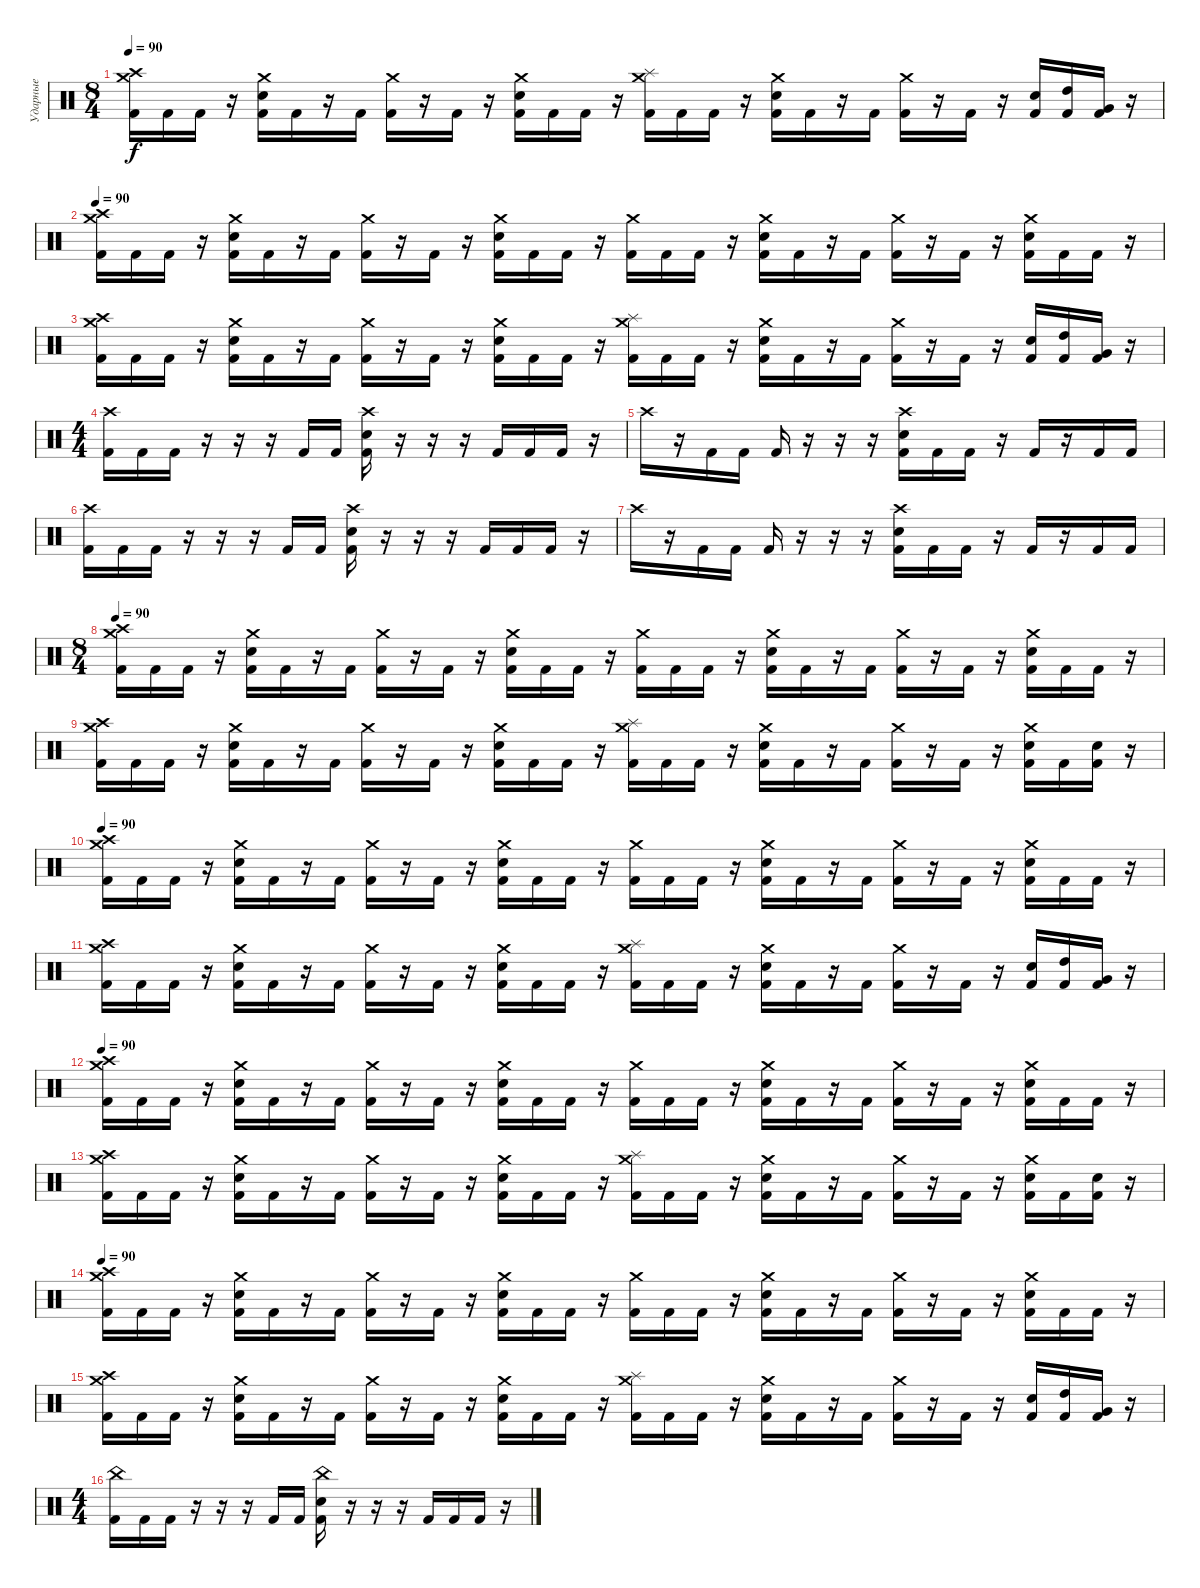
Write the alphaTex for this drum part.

\track ("Ударные" "Ударные") {instrument percussion}
\staff {score}
\articulation defaults
\ts (8 4)
\tempo 90
\clef neutral
\ks c
("Crash medium (hit)" "Crash high (hit)" "Kick (hit) 2").16{dy f} "Kick (hit) 2".16 "Kick (hit) 2".16 r.16 ("Crash medium (hit)" "Electric Snare (hit)" "Kick (hit) 2").16 "Kick (hit) 2".16 r.16 "Kick (hit) 2".16 ("Crash medium (hit)" "Kick (hit) 2").16 r.16 "Kick (hit) 2".16 r.16 ("Crash medium (hit)" "Electric Snare (hit)" "Kick (hit) 2").16 "Kick (hit) 2".16 "Kick (hit) 2".16 r.16 ("Crash medium (hit)" "Splash (hit)" "Kick (hit) 2").16 "Kick (hit) 2".16 "Kick (hit) 2".16 r.16 ("Crash medium (hit)" "Electric Snare (hit)" "Kick (hit) 2").16 "Kick (hit) 2".16 r.16 "Kick (hit) 2".16 ("Crash medium (hit)" "Kick (hit) 2").16 r.16 "Kick (hit) 2".16 r.16 ("Electric Snare (hit)" "Kick (hit) 2").16 ("High Tom (hit)" "Kick (hit) 2").16 ("Very Low Tom (hit)" "Kick (hit) 2").16 r.16 |
\tempo 90
("Crash medium (hit)" "Crash high (hit)" "Kick (hit) 2").16 "Kick (hit) 2".16 "Kick (hit) 2".16 r.16 ("Crash medium (hit)" "Electric Snare (hit)" "Kick (hit) 2").16 "Kick (hit) 2".16 r.16 "Kick (hit) 2".16 ("Crash medium (hit)" "Kick (hit) 2").16 r.16 "Kick (hit) 2".16 r.16 ("Crash medium (hit)" "Electric Snare (hit)" "Kick (hit) 2").16 "Kick (hit) 2".16 "Kick (hit) 2".16 r.16 ("Crash medium (hit)" "Kick (hit) 2").16 "Kick (hit) 2".16 "Kick (hit) 2".16 r.16 ("Crash medium (hit)" "Electric Snare (hit)" "Kick (hit) 2").16 "Kick (hit) 2".16 r.16 "Kick (hit) 2".16 ("Crash medium (hit)" "Kick (hit) 2").16 r.16 "Kick (hit) 2".16 r.16 ("Crash medium (hit)" "Electric Snare (hit)" "Kick (hit) 2").16 "Kick (hit) 2".16 "Kick (hit) 2".16 r.16 |
("Crash medium (hit)" "Crash high (hit)" "Kick (hit) 2").16 "Kick (hit) 2".16 "Kick (hit) 2".16 r.16 ("Crash medium (hit)" "Electric Snare (hit)" "Kick (hit) 2").16 "Kick (hit) 2".16 r.16 "Kick (hit) 2".16 ("Crash medium (hit)" "Kick (hit) 2").16 r.16 "Kick (hit) 2".16 r.16 ("Crash medium (hit)" "Electric Snare (hit)" "Kick (hit) 2").16 "Kick (hit) 2".16 "Kick (hit) 2".16 r.16 ("Crash medium (hit)" "Splash (hit)" "Kick (hit) 2").16 "Kick (hit) 2".16 "Kick (hit) 2".16 r.16 ("Crash medium (hit)" "Electric Snare (hit)" "Kick (hit) 2").16 "Kick (hit) 2".16 r.16 "Kick (hit) 2".16 ("Crash medium (hit)" "Kick (hit) 2").16 r.16 "Kick (hit) 2".16 r.16 ("Electric Snare (hit)" "Kick (hit) 2").16 ("High Tom (hit)" "Kick (hit) 2").16 ("Very Low Tom (hit)" "Kick (hit) 2").16 r.16 |
\ts (4 4)
("Crash high (hit)" "Kick (hit) 2").16 "Kick (hit) 2".16 "Kick (hit) 2".16 r.16 r.16 r.16 "Kick (hit) 2".16 "Kick (hit) 2".16 ("Crash high (hit)" "Electric Snare (hit)" "Kick (hit) 2").16 r.16 r.16 r.16 "Kick (hit) 2".16 "Kick (hit) 2".16 "Kick (hit) 2".16 r.16 |
"Crash high (hit)".16 r.16 "Kick (hit) 2".16 "Kick (hit) 2".16 "Kick (hit) 2".16 r.16 r.16 r.16 ("Crash high (hit)" "Electric Snare (hit)" "Kick (hit) 2").16 "Kick (hit) 2".16 "Kick (hit) 2".16 r.16 "Kick (hit) 2".16 r.16 "Kick (hit) 2".16 "Kick (hit) 2".16 |
("Crash high (hit)" "Kick (hit) 2").16 "Kick (hit) 2".16 "Kick (hit) 2".16 r.16 r.16 r.16 "Kick (hit) 2".16 "Kick (hit) 2".16 ("Crash high (hit)" "Electric Snare (hit)" "Kick (hit) 2").16 r.16 r.16 r.16 "Kick (hit) 2".16 "Kick (hit) 2".16 "Kick (hit) 2".16 r.16 |
"Crash high (hit)".16 r.16 "Kick (hit) 2".16 "Kick (hit) 2".16 "Kick (hit) 2".16 r.16 r.16 r.16 ("Crash high (hit)" "Electric Snare (hit)" "Kick (hit) 2").16 "Kick (hit) 2".16 "Kick (hit) 2".16 r.16 "Kick (hit) 2".16 r.16 "Kick (hit) 2".16 "Kick (hit) 2".16 |
\ts (8 4)
\tempo 90
("Crash medium (hit)" "Crash high (hit)" "Kick (hit) 2").16 "Kick (hit) 2".16 "Kick (hit) 2".16 r.16 ("Crash medium (hit)" "Electric Snare (hit)" "Kick (hit) 2").16 "Kick (hit) 2".16 r.16 "Kick (hit) 2".16 ("Crash medium (hit)" "Kick (hit) 2").16 r.16 "Kick (hit) 2".16 r.16 ("Crash medium (hit)" "Electric Snare (hit)" "Kick (hit) 2").16 "Kick (hit) 2".16 "Kick (hit) 2".16 r.16 ("Crash medium (hit)" "Kick (hit) 2").16 "Kick (hit) 2".16 "Kick (hit) 2".16 r.16 ("Crash medium (hit)" "Electric Snare (hit)" "Kick (hit) 2").16 "Kick (hit) 2".16 r.16 "Kick (hit) 2".16 ("Crash medium (hit)" "Kick (hit) 2").16 r.16 "Kick (hit) 2".16 r.16 ("Crash medium (hit)" "Electric Snare (hit)" "Kick (hit) 2").16 "Kick (hit) 2".16 "Kick (hit) 2".16 r.16 |
("Crash medium (hit)" "Crash high (hit)" "Kick (hit) 2").16 "Kick (hit) 2".16 "Kick (hit) 2".16 r.16 ("Crash medium (hit)" "Electric Snare (hit)" "Kick (hit) 2").16 "Kick (hit) 2".16 r.16 "Kick (hit) 2".16 ("Crash medium (hit)" "Kick (hit) 2").16 r.16 "Kick (hit) 2".16 r.16 ("Crash medium (hit)" "Electric Snare (hit)" "Kick (hit) 2").16 "Kick (hit) 2".16 "Kick (hit) 2".16 r.16 ("Crash medium (hit)" "Splash (hit)" "Kick (hit) 2").16 "Kick (hit) 2".16 "Kick (hit) 2".16 r.16 ("Crash medium (hit)" "Electric Snare (hit)" "Kick (hit) 2").16 "Kick (hit) 2".16 r.16 "Kick (hit) 2".16 ("Crash medium (hit)" "Kick (hit) 2").16 r.16 "Kick (hit) 2".16 r.16 ("Crash medium (hit)" "Electric Snare (hit)" "Kick (hit) 2").16 "Kick (hit) 2".16 ("Electric Snare (hit)" "Kick (hit) 2").16 r.16 |
\tempo 90
("Crash medium (hit)" "Crash high (hit)" "Kick (hit) 2").16 "Kick (hit) 2".16 "Kick (hit) 2".16 r.16 ("Crash medium (hit)" "Electric Snare (hit)" "Kick (hit) 2").16 "Kick (hit) 2".16 r.16 "Kick (hit) 2".16 ("Crash medium (hit)" "Kick (hit) 2").16 r.16 "Kick (hit) 2".16 r.16 ("Crash medium (hit)" "Electric Snare (hit)" "Kick (hit) 2").16 "Kick (hit) 2".16 "Kick (hit) 2".16 r.16 ("Crash medium (hit)" "Kick (hit) 2").16 "Kick (hit) 2".16 "Kick (hit) 2".16 r.16 ("Crash medium (hit)" "Electric Snare (hit)" "Kick (hit) 2").16 "Kick (hit) 2".16 r.16 "Kick (hit) 2".16 ("Crash medium (hit)" "Kick (hit) 2").16 r.16 "Kick (hit) 2".16 r.16 ("Crash medium (hit)" "Electric Snare (hit)" "Kick (hit) 2").16 "Kick (hit) 2".16 "Kick (hit) 2".16 r.16 |
("Crash medium (hit)" "Crash high (hit)" "Kick (hit) 2").16 "Kick (hit) 2".16 "Kick (hit) 2".16 r.16 ("Crash medium (hit)" "Electric Snare (hit)" "Kick (hit) 2").16 "Kick (hit) 2".16 r.16 "Kick (hit) 2".16 ("Crash medium (hit)" "Kick (hit) 2").16 r.16 "Kick (hit) 2".16 r.16 ("Crash medium (hit)" "Electric Snare (hit)" "Kick (hit) 2").16 "Kick (hit) 2".16 "Kick (hit) 2".16 r.16 ("Crash medium (hit)" "Splash (hit)" "Kick (hit) 2").16 "Kick (hit) 2".16 "Kick (hit) 2".16 r.16 ("Crash medium (hit)" "Electric Snare (hit)" "Kick (hit) 2").16 "Kick (hit) 2".16 r.16 "Kick (hit) 2".16 ("Crash medium (hit)" "Kick (hit) 2").16 r.16 "Kick (hit) 2".16 r.16 ("Electric Snare (hit)" "Kick (hit) 2").16 ("High Tom (hit)" "Kick (hit) 2").16 ("Very Low Tom (hit)" "Kick (hit) 2").16 r.16 |
\tempo 90
("Crash medium (hit)" "Crash high (hit)" "Kick (hit) 2").16 "Kick (hit) 2".16 "Kick (hit) 2".16 r.16 ("Crash medium (hit)" "Electric Snare (hit)" "Kick (hit) 2").16 "Kick (hit) 2".16 r.16 "Kick (hit) 2".16 ("Crash medium (hit)" "Kick (hit) 2").16 r.16 "Kick (hit) 2".16 r.16 ("Crash medium (hit)" "Electric Snare (hit)" "Kick (hit) 2").16 "Kick (hit) 2".16 "Kick (hit) 2".16 r.16 ("Crash medium (hit)" "Kick (hit) 2").16 "Kick (hit) 2".16 "Kick (hit) 2".16 r.16 ("Crash medium (hit)" "Electric Snare (hit)" "Kick (hit) 2").16 "Kick (hit) 2".16 r.16 "Kick (hit) 2".16 ("Crash medium (hit)" "Kick (hit) 2").16 r.16 "Kick (hit) 2".16 r.16 ("Crash medium (hit)" "Electric Snare (hit)" "Kick (hit) 2").16 "Kick (hit) 2".16 "Kick (hit) 2".16 r.16 |
("Crash medium (hit)" "Crash high (hit)" "Kick (hit) 2").16 "Kick (hit) 2".16 "Kick (hit) 2".16 r.16 ("Crash medium (hit)" "Electric Snare (hit)" "Kick (hit) 2").16 "Kick (hit) 2".16 r.16 "Kick (hit) 2".16 ("Crash medium (hit)" "Kick (hit) 2").16 r.16 "Kick (hit) 2".16 r.16 ("Crash medium (hit)" "Electric Snare (hit)" "Kick (hit) 2").16 "Kick (hit) 2".16 "Kick (hit) 2".16 r.16 ("Crash medium (hit)" "Splash (hit)" "Kick (hit) 2").16 "Kick (hit) 2".16 "Kick (hit) 2".16 r.16 ("Crash medium (hit)" "Electric Snare (hit)" "Kick (hit) 2").16 "Kick (hit) 2".16 r.16 "Kick (hit) 2".16 ("Crash medium (hit)" "Kick (hit) 2").16 r.16 "Kick (hit) 2".16 r.16 ("Crash medium (hit)" "Electric Snare (hit)" "Kick (hit) 2").16 "Kick (hit) 2".16 ("Electric Snare (hit)" "Kick (hit) 2").16 r.16 |
\tempo 90
("Crash medium (hit)" "Crash high (hit)" "Kick (hit) 2").16 "Kick (hit) 2".16 "Kick (hit) 2".16 r.16 ("Crash medium (hit)" "Electric Snare (hit)" "Kick (hit) 2").16 "Kick (hit) 2".16 r.16 "Kick (hit) 2".16 ("Crash medium (hit)" "Kick (hit) 2").16 r.16 "Kick (hit) 2".16 r.16 ("Crash medium (hit)" "Electric Snare (hit)" "Kick (hit) 2").16 "Kick (hit) 2".16 "Kick (hit) 2".16 r.16 ("Crash medium (hit)" "Kick (hit) 2").16 "Kick (hit) 2".16 "Kick (hit) 2".16 r.16 ("Crash medium (hit)" "Electric Snare (hit)" "Kick (hit) 2").16 "Kick (hit) 2".16 r.16 "Kick (hit) 2".16 ("Crash medium (hit)" "Kick (hit) 2").16 r.16 "Kick (hit) 2".16 r.16 ("Crash medium (hit)" "Electric Snare (hit)" "Kick (hit) 2").16 "Kick (hit) 2".16 "Kick (hit) 2".16 r.16 |
("Crash medium (hit)" "Crash high (hit)" "Kick (hit) 2").16 "Kick (hit) 2".16 "Kick (hit) 2".16 r.16 ("Crash medium (hit)" "Electric Snare (hit)" "Kick (hit) 2").16 "Kick (hit) 2".16 r.16 "Kick (hit) 2".16 ("Crash medium (hit)" "Kick (hit) 2").16 r.16 "Kick (hit) 2".16 r.16 ("Crash medium (hit)" "Electric Snare (hit)" "Kick (hit) 2").16 "Kick (hit) 2".16 "Kick (hit) 2".16 r.16 ("Crash medium (hit)" "Splash (hit)" "Kick (hit) 2").16 "Kick (hit) 2".16 "Kick (hit) 2".16 r.16 ("Crash medium (hit)" "Electric Snare (hit)" "Kick (hit) 2").16 "Kick (hit) 2".16 r.16 "Kick (hit) 2".16 ("Crash medium (hit)" "Kick (hit) 2").16 r.16 "Kick (hit) 2".16 r.16 ("Electric Snare (hit)" "Kick (hit) 2").16 ("High Tom (hit)" "Kick (hit) 2").16 ("Very Low Tom (hit)" "Kick (hit) 2").16 r.16 |
\ts (4 4)
("China (hit)" "Kick (hit) 2").16 "Kick (hit) 2".16 "Kick (hit) 2".16 r.16 r.16 r.16 "Kick (hit) 2".16 "Kick (hit) 2".16 ("China (hit)" "Electric Snare (hit)" "Kick (hit) 2").16 r.16 r.16 r.16 "Kick (hit) 2".16 "Kick (hit) 2".16 "Kick (hit) 2".16 r.16
